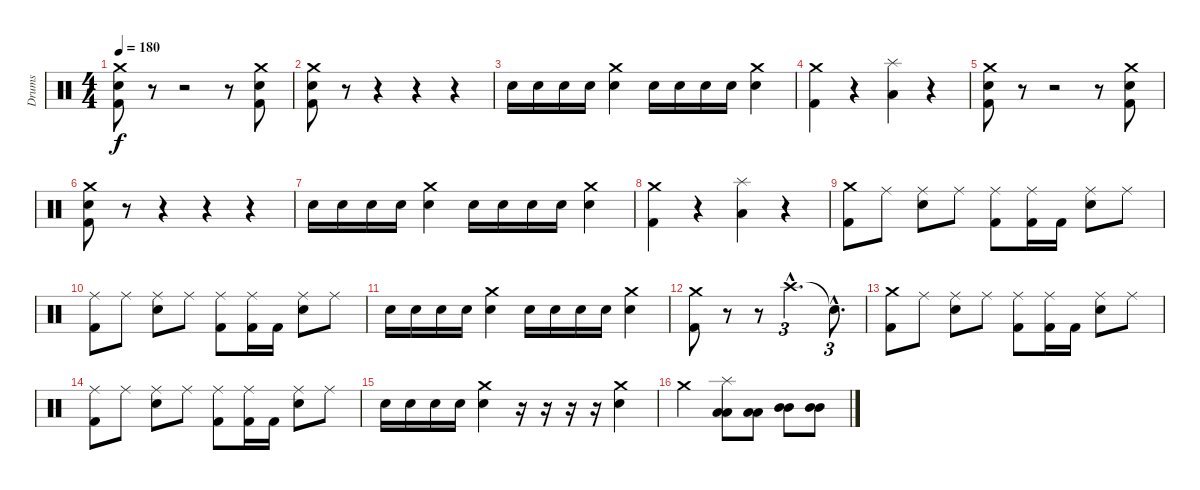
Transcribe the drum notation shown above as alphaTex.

\track ("Drums" "Drums") {instrument percussion}
\staff {score}
\articulation defaults
\ts (4 4)
\tempo 180
\clef neutral
\ks c
("Crash medium (hit)" "Electric Snare (hit)" "Kick (hit) 2").8{dy f} r.8 r.2 r.8 ("Crash medium (hit)" "Electric Snare (hit)" "Kick (hit) 2").8 |
("Crash medium (hit)" "Electric Snare (hit)" "Kick (hit) 2").8 r.8 r.4 r.4 r.4 |
"Electric Snare (hit)".16 "Electric Snare (hit)".16 "Electric Snare (hit)".16 "Electric Snare (hit)".16 ("Electric Snare (hit)" "Crash medium (hit)").4 "Electric Snare (hit)".16 "Electric Snare (hit)".16 "Electric Snare (hit)".16 "Electric Snare (hit)".16 ("Electric Snare (hit)" "Crash medium (hit)").4 |
("Crash medium (hit)" "Kick (hit) 2").4 r.4 ("Splash (hit)" "Low Tom (hit)").4 r.4 |
("Crash medium (hit)" "Electric Snare (hit)" "Kick (hit) 2").8 r.8 r.2 r.8 ("Crash medium (hit)" "Electric Snare (hit)" "Kick (hit) 2").8 |
("Crash medium (hit)" "Electric Snare (hit)" "Kick (hit) 2").8 r.8 r.4 r.4 r.4 |
"Electric Snare (hit)".16 "Electric Snare (hit)".16 "Electric Snare (hit)".16 "Electric Snare (hit)".16 ("Electric Snare (hit)" "Crash medium (hit)").4 "Electric Snare (hit)".16 "Electric Snare (hit)".16 "Electric Snare (hit)".16 "Electric Snare (hit)".16 ("Electric Snare (hit)" "Crash medium (hit)").4 |
("Crash medium (hit)" "Kick (hit) 2").4 r.4 ("Splash (hit)" "Low Tom (hit)").4 r.4 |
("Crash medium (hit)" "Kick (hit) 2").8 "Ride (middle)".8 ("Ride (middle)" "Electric Snare (hit)").8 "Ride (middle)".8 ("Ride (middle)" "Kick (hit) 2").8 ("Ride (middle)" "Kick (hit) 2").16 "Kick (hit) 2".16 ("Ride (middle)" "Electric Snare (hit)").8 "Ride (middle)".8 |
("Ride (middle)" "Kick (hit) 2").8 "Ride (middle)".8 ("Ride (middle)" "Electric Snare (hit)").8 "Ride (middle)".8 ("Ride (middle)" "Kick (hit) 2").8 ("Ride (middle)" "Kick (hit) 2").16 "Kick (hit) 2".16 ("Ride (middle)" "Electric Snare (hit)").8 "Ride (middle)".8 |
"Electric Snare (hit)".16 "Electric Snare (hit)".16 "Electric Snare (hit)".16 "Electric Snare (hit)".16 ("Electric Snare (hit)" "Crash medium (hit)").4 "Electric Snare (hit)".16 "Electric Snare (hit)".16 "Electric Snare (hit)".16 "Electric Snare (hit)".16 ("Electric Snare (hit)" "Crash medium (hit)").4 |
("Crash medium (hit)" "Kick (hit) 2").8 r.8 r.8 "Crash high (hit)"{hac}.2{d tu (3 2)} "Snare (hit)"{hac t}.8{d tu (3 2)} |
("Crash medium (hit)" "Kick (hit) 2").8 "Ride (middle)".8 ("Ride (middle)" "Electric Snare (hit)").8 "Ride (middle)".8 ("Ride (middle)" "Kick (hit) 2").8 ("Ride (middle)" "Kick (hit) 2").16 "Kick (hit) 2".16 ("Ride (middle)" "Electric Snare (hit)").8 "Ride (middle)".8 |
("Ride (middle)" "Kick (hit) 2").8 "Ride (middle)".8 ("Ride (middle)" "Electric Snare (hit)").8 "Ride (middle)".8 ("Ride (middle)" "Kick (hit) 2").8 ("Ride (middle)" "Kick (hit) 2").16 "Kick (hit) 2".16 ("Ride (middle)" "Electric Snare (hit)").8 "Ride (middle)".8 |
"Electric Snare (hit)".16 "Electric Snare (hit)".16 "Electric Snare (hit)".16 "Electric Snare (hit)".16 ("Electric Snare (hit)" "Crash medium (hit)").4 r.16 r.16 r.16 r.16 ("Electric Snare (hit)" "Crash medium (hit)").4 |
"Crash medium (hit)".2 ("Splash (hit)" "Low Tom (hit)" "Low Tom (hit)").8 ("Low Tom (hit)" "Low Tom (hit)").8 ("Mid Tom (hit)" "Mid Tom (hit)").8 ("Mid Tom (hit)" "Mid Tom (hit)").8
